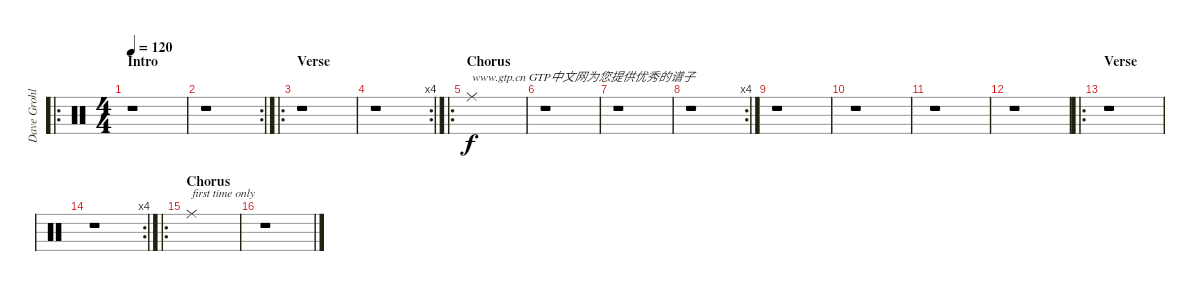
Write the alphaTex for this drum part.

\track ("Dave Grohl" "Dave Grohl") {instrument percussion}
\staff {score}
\articulation defaults
\ro
\ts (4 4)
\section ("" "Intro")
\tempo 120
\clef neutral
\ks c
r.1{dy f} |
\rc 2
r.1 |
\ro
\section ("" "Verse")
r.1 |
\rc 4
r.1 |
\ro
\section ("" "Chorus")
"Ride (middle)".1{txt "www.gtp.cn GTP中文网为您提供优秀的谱子"} |
r.1{volume 0} |
r.1 |
\rc 4
r.1 |
r.1 |
r.1 |
r.1 |
r.1 |
\ro
\section ("" "Verse")
r.1 |
\rc 4
r.1{volume 16} |
\ro
\section ("" "Chorus")
"Ride (middle)".1{txt "first time only"} |
r.1{volume 0}
